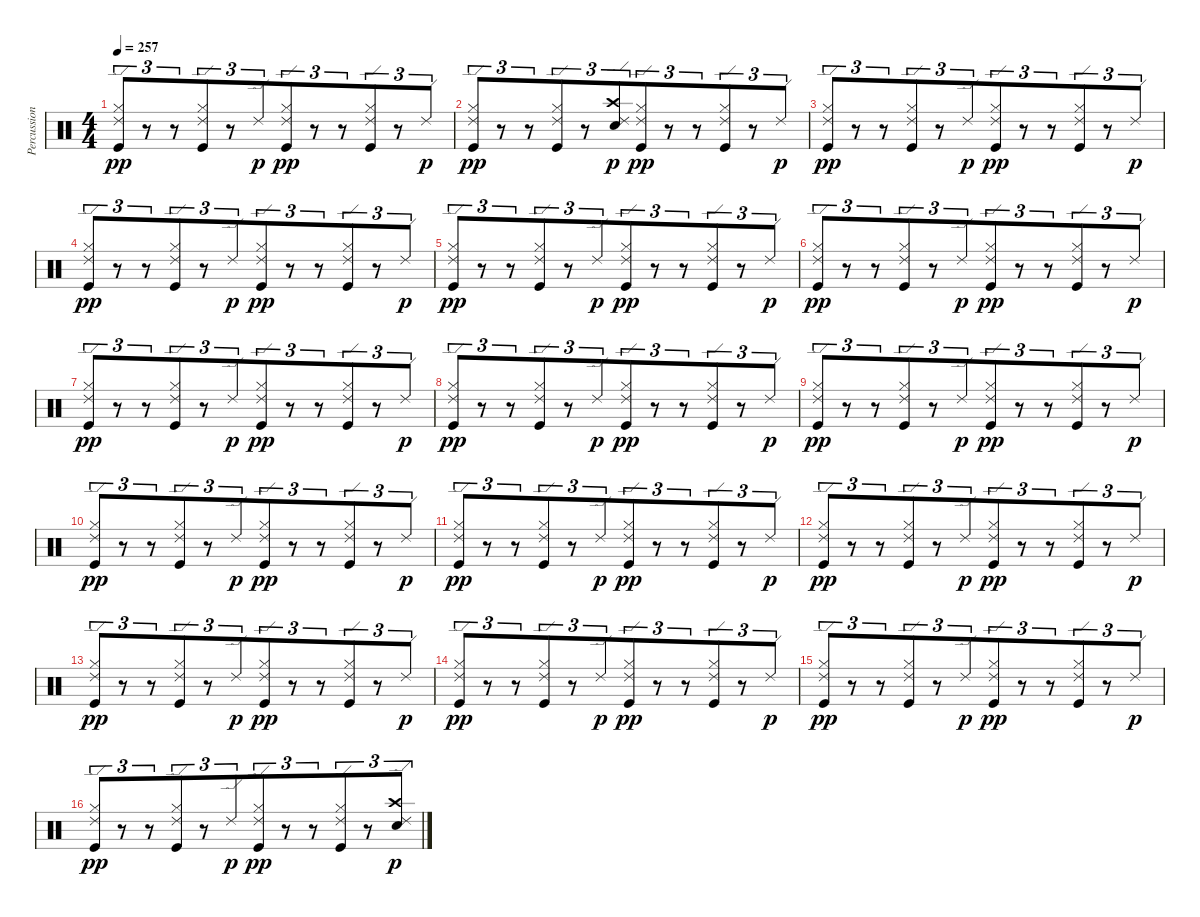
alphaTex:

\track ("Percussion" "Percussion") {instrument percussion}
\staff {score}
\articulation defaults
\ts (4 4)
\tempo 257
\clef neutral
\ks c
("Ride (edge) 2" "Hi-Hat (closed)" "Kick (hit)").8{tu (3 2) dy pp beam merge} r.8{tu (3 2) beam merge} r.8{tu (3 2)} ("Ride (edge) 2" "Hi-Hat (closed)" "Kick (hit)").8{tu (3 2)} r.8{tu (3 2)} "Ride (edge) 2".8{tu (3 2) dy p beam merge} ("Ride (edge) 2" "Hi-Hat (closed)" "Kick (hit)").8{tu (3 2) dy pp beam merge} r.8{tu (3 2) beam merge} r.8{tu (3 2)} ("Ride (edge) 2" "Hi-Hat (closed)" "Kick (hit)").8{tu (3 2)} r.8{tu (3 2)} "Ride (edge) 2".8{tu (3 2) dy p} |
("Ride (edge) 2" "Hi-Hat (closed)" "Kick (hit)").8{tu (3 2) dy pp beam merge} r.8{tu (3 2) beam merge} r.8{tu (3 2)} ("Ride (edge) 2" "Hi-Hat (closed)" "Kick (hit)").8{tu (3 2)} r.8{tu (3 2)} ("Ride (edge) 2" "Crash high (hit)" "Electric Snare (hit)").8{tu (3 2) dy p beam merge} ("Ride (edge) 2" "Hi-Hat (closed)" "Kick (hit)").8{tu (3 2) dy pp beam merge} r.8{tu (3 2) beam merge} r.8{tu (3 2)} ("Ride (edge) 2" "Hi-Hat (closed)" "Kick (hit)").8{tu (3 2)} r.8{tu (3 2)} "Ride (edge) 2".8{tu (3 2) dy p} |
("Ride (edge) 2" "Hi-Hat (closed)" "Kick (hit)").8{tu (3 2) dy pp beam merge} r.8{tu (3 2) beam merge} r.8{tu (3 2)} ("Ride (edge) 2" "Hi-Hat (closed)" "Kick (hit)").8{tu (3 2)} r.8{tu (3 2)} "Ride (edge) 2".8{tu (3 2) dy p beam merge} ("Ride (edge) 2" "Hi-Hat (closed)" "Kick (hit)").8{tu (3 2) dy pp beam merge} r.8{tu (3 2) beam merge} r.8{tu (3 2)} ("Ride (edge) 2" "Hi-Hat (closed)" "Kick (hit)").8{tu (3 2)} r.8{tu (3 2)} "Ride (edge) 2".8{tu (3 2) dy p} |
("Ride (edge) 2" "Hi-Hat (closed)" "Kick (hit)").8{tu (3 2) dy pp beam merge} r.8{tu (3 2) beam merge} r.8{tu (3 2)} ("Ride (edge) 2" "Hi-Hat (closed)" "Kick (hit)").8{tu (3 2)} r.8{tu (3 2)} "Ride (edge) 2".8{tu (3 2) dy p beam merge} ("Ride (edge) 2" "Hi-Hat (closed)" "Kick (hit)").8{tu (3 2) dy pp beam merge} r.8{tu (3 2) beam merge} r.8{tu (3 2)} ("Ride (edge) 2" "Hi-Hat (closed)" "Kick (hit)").8{tu (3 2)} r.8{tu (3 2)} "Ride (edge) 2".8{tu (3 2) dy p} |
("Ride (edge) 2" "Hi-Hat (closed)" "Kick (hit)").8{tu (3 2) dy pp beam merge} r.8{tu (3 2) beam merge} r.8{tu (3 2)} ("Ride (edge) 2" "Hi-Hat (closed)" "Kick (hit)").8{tu (3 2)} r.8{tu (3 2)} "Ride (edge) 2".8{tu (3 2) dy p beam merge} ("Ride (edge) 2" "Hi-Hat (closed)" "Kick (hit)").8{tu (3 2) dy pp beam merge} r.8{tu (3 2) beam merge} r.8{tu (3 2)} ("Ride (edge) 2" "Hi-Hat (closed)" "Kick (hit)").8{tu (3 2)} r.8{tu (3 2)} "Ride (edge) 2".8{tu (3 2) dy p} |
("Ride (edge) 2" "Hi-Hat (closed)" "Kick (hit)").8{tu (3 2) dy pp beam merge} r.8{tu (3 2) beam merge} r.8{tu (3 2)} ("Ride (edge) 2" "Hi-Hat (closed)" "Kick (hit)").8{tu (3 2)} r.8{tu (3 2)} "Ride (edge) 2".8{tu (3 2) dy p beam merge} ("Ride (edge) 2" "Hi-Hat (closed)" "Kick (hit)").8{tu (3 2) dy pp beam merge} r.8{tu (3 2) beam merge} r.8{tu (3 2)} ("Ride (edge) 2" "Hi-Hat (closed)" "Kick (hit)").8{tu (3 2)} r.8{tu (3 2)} "Ride (edge) 2".8{tu (3 2) dy p} |
("Ride (edge) 2" "Hi-Hat (closed)" "Kick (hit)").8{tu (3 2) dy pp beam merge} r.8{tu (3 2) beam merge} r.8{tu (3 2)} ("Ride (edge) 2" "Hi-Hat (closed)" "Kick (hit)").8{tu (3 2)} r.8{tu (3 2)} "Ride (edge) 2".8{tu (3 2) dy p beam merge} ("Ride (edge) 2" "Hi-Hat (closed)" "Kick (hit)").8{tu (3 2) dy pp beam merge} r.8{tu (3 2) beam merge} r.8{tu (3 2)} ("Ride (edge) 2" "Hi-Hat (closed)" "Kick (hit)").8{tu (3 2)} r.8{tu (3 2)} "Ride (edge) 2".8{tu (3 2) dy p} |
("Ride (edge) 2" "Hi-Hat (closed)" "Kick (hit)").8{tu (3 2) dy pp beam merge} r.8{tu (3 2) beam merge} r.8{tu (3 2)} ("Ride (edge) 2" "Hi-Hat (closed)" "Kick (hit)").8{tu (3 2)} r.8{tu (3 2)} "Ride (edge) 2".8{tu (3 2) dy p beam merge} ("Ride (edge) 2" "Hi-Hat (closed)" "Kick (hit)").8{tu (3 2) dy pp beam merge} r.8{tu (3 2) beam merge} r.8{tu (3 2)} ("Ride (edge) 2" "Hi-Hat (closed)" "Kick (hit)").8{tu (3 2)} r.8{tu (3 2)} "Ride (edge) 2".8{tu (3 2) dy p} |
("Ride (edge) 2" "Hi-Hat (closed)" "Kick (hit)").8{tu (3 2) dy pp beam merge} r.8{tu (3 2) beam merge} r.8{tu (3 2)} ("Ride (edge) 2" "Hi-Hat (closed)" "Kick (hit)").8{tu (3 2)} r.8{tu (3 2)} "Ride (edge) 2".8{tu (3 2) dy p beam merge} ("Ride (edge) 2" "Hi-Hat (closed)" "Kick (hit)").8{tu (3 2) dy pp beam merge} r.8{tu (3 2) beam merge} r.8{tu (3 2)} ("Ride (edge) 2" "Hi-Hat (closed)" "Kick (hit)").8{tu (3 2)} r.8{tu (3 2)} "Ride (edge) 2".8{tu (3 2) dy p} |
("Ride (edge) 2" "Hi-Hat (closed)" "Kick (hit)").8{tu (3 2) dy pp beam merge} r.8{tu (3 2) beam merge} r.8{tu (3 2)} ("Ride (edge) 2" "Hi-Hat (closed)" "Kick (hit)").8{tu (3 2)} r.8{tu (3 2)} "Ride (edge) 2".8{tu (3 2) dy p beam merge} ("Ride (edge) 2" "Hi-Hat (closed)" "Kick (hit)").8{tu (3 2) dy pp beam merge} r.8{tu (3 2) beam merge} r.8{tu (3 2)} ("Ride (edge) 2" "Hi-Hat (closed)" "Kick (hit)").8{tu (3 2)} r.8{tu (3 2)} "Ride (edge) 2".8{tu (3 2) dy p} |
("Ride (edge) 2" "Hi-Hat (closed)" "Kick (hit)").8{tu (3 2) dy pp beam merge} r.8{tu (3 2) beam merge} r.8{tu (3 2)} ("Ride (edge) 2" "Hi-Hat (closed)" "Kick (hit)").8{tu (3 2)} r.8{tu (3 2)} "Ride (edge) 2".8{tu (3 2) dy p beam merge} ("Ride (edge) 2" "Hi-Hat (closed)" "Kick (hit)").8{tu (3 2) dy pp beam merge} r.8{tu (3 2) beam merge} r.8{tu (3 2)} ("Ride (edge) 2" "Hi-Hat (closed)" "Kick (hit)").8{tu (3 2)} r.8{tu (3 2)} "Ride (edge) 2".8{tu (3 2) dy p} |
("Ride (edge) 2" "Hi-Hat (closed)" "Kick (hit)").8{tu (3 2) dy pp beam merge} r.8{tu (3 2) beam merge} r.8{tu (3 2)} ("Ride (edge) 2" "Hi-Hat (closed)" "Kick (hit)").8{tu (3 2)} r.8{tu (3 2)} "Ride (edge) 2".8{tu (3 2) dy p beam merge} ("Ride (edge) 2" "Hi-Hat (closed)" "Kick (hit)").8{tu (3 2) dy pp beam merge} r.8{tu (3 2) beam merge} r.8{tu (3 2)} ("Ride (edge) 2" "Hi-Hat (closed)" "Kick (hit)").8{tu (3 2)} r.8{tu (3 2)} "Ride (edge) 2".8{tu (3 2) dy p} |
("Ride (edge) 2" "Hi-Hat (closed)" "Kick (hit)").8{tu (3 2) dy pp beam merge} r.8{tu (3 2) beam merge} r.8{tu (3 2)} ("Ride (edge) 2" "Hi-Hat (closed)" "Kick (hit)").8{tu (3 2)} r.8{tu (3 2)} "Ride (edge) 2".8{tu (3 2) dy p beam merge} ("Ride (edge) 2" "Hi-Hat (closed)" "Kick (hit)").8{tu (3 2) dy pp beam merge} r.8{tu (3 2) beam merge} r.8{tu (3 2)} ("Ride (edge) 2" "Hi-Hat (closed)" "Kick (hit)").8{tu (3 2)} r.8{tu (3 2)} "Ride (edge) 2".8{tu (3 2) dy p} |
("Ride (edge) 2" "Hi-Hat (closed)" "Kick (hit)").8{tu (3 2) dy pp beam merge} r.8{tu (3 2) beam merge} r.8{tu (3 2)} ("Ride (edge) 2" "Hi-Hat (closed)" "Kick (hit)").8{tu (3 2)} r.8{tu (3 2)} "Ride (edge) 2".8{tu (3 2) dy p beam merge} ("Ride (edge) 2" "Hi-Hat (closed)" "Kick (hit)").8{tu (3 2) dy pp beam merge} r.8{tu (3 2) beam merge} r.8{tu (3 2)} ("Ride (edge) 2" "Hi-Hat (closed)" "Kick (hit)").8{tu (3 2)} r.8{tu (3 2)} "Ride (edge) 2".8{tu (3 2) dy p} |
("Ride (edge) 2" "Hi-Hat (closed)" "Kick (hit)").8{tu (3 2) dy pp beam merge} r.8{tu (3 2) beam merge} r.8{tu (3 2)} ("Ride (edge) 2" "Hi-Hat (closed)" "Kick (hit)").8{tu (3 2)} r.8{tu (3 2)} "Ride (edge) 2".8{tu (3 2) dy p beam merge} ("Ride (edge) 2" "Hi-Hat (closed)" "Kick (hit)").8{tu (3 2) dy pp beam merge} r.8{tu (3 2) beam merge} r.8{tu (3 2)} ("Ride (edge) 2" "Hi-Hat (closed)" "Kick (hit)").8{tu (3 2)} r.8{tu (3 2)} "Ride (edge) 2".8{tu (3 2) dy p} |
("Ride (edge) 2" "Hi-Hat (closed)" "Kick (hit)").8{tu (3 2) dy pp beam merge} r.8{tu (3 2) beam merge} r.8{tu (3 2)} ("Ride (edge) 2" "Hi-Hat (closed)" "Kick (hit)").8{tu (3 2)} r.8{tu (3 2)} "Ride (edge) 2".8{tu (3 2) dy p beam merge} ("Ride (edge) 2" "Hi-Hat (closed)" "Kick (hit)").8{tu (3 2) dy pp beam merge} r.8{tu (3 2) beam merge} r.8{tu (3 2)} ("Ride (edge) 2" "Hi-Hat (closed)" "Kick (hit)").8{tu (3 2)} r.8{tu (3 2)} ("Ride (edge) 2" "Crash high (hit)" "Electric Snare (hit)").8{tu (3 2) dy p}
